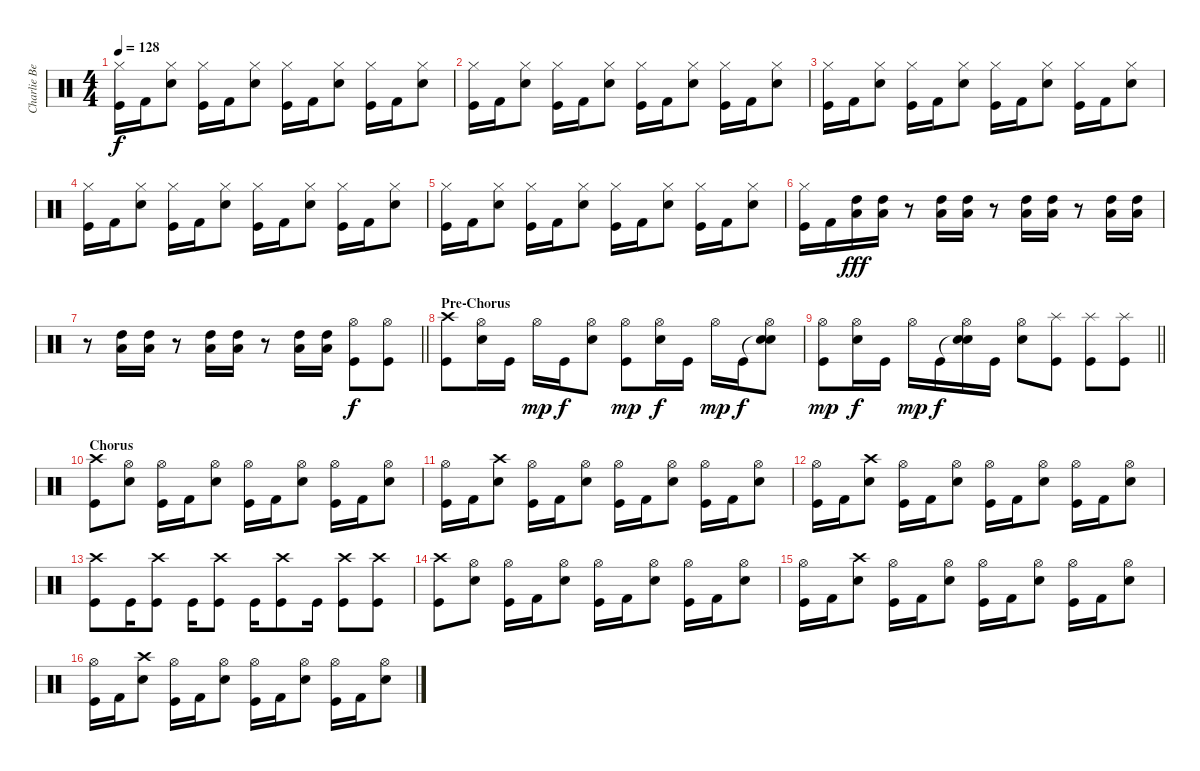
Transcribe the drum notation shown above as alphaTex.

\track ("Charlie Benante (Drums)" "Charlie Be") {instrument percussion}
\staff {score}
\articulation defaults
\ts (4 4)
\tempo 128
\clef neutral
\ks c
("Hi-Hat (closed)" "Kick (hit)").16{dy f} "Kick (hit) 2".16 ("Hi-Hat (closed)" "Snare (hit) 2").8 ("Hi-Hat (closed)" "Kick (hit)").16 "Kick (hit) 2".16 ("Hi-Hat (closed)" "Snare (hit) 2").8 ("Hi-Hat (closed)" "Kick (hit)").16 "Kick (hit) 2".16 ("Hi-Hat (closed)" "Snare (hit) 2").8 ("Hi-Hat (closed)" "Kick (hit)").16 "Kick (hit) 2".16 ("Hi-Hat (closed)" "Snare (hit) 2").8 |
("Hi-Hat (closed)" "Kick (hit)").16 "Kick (hit) 2".16 ("Hi-Hat (closed)" "Snare (hit) 2").8 ("Hi-Hat (closed)" "Kick (hit)").16 "Kick (hit) 2".16 ("Hi-Hat (closed)" "Snare (hit) 2").8 ("Hi-Hat (closed)" "Kick (hit)").16 "Kick (hit) 2".16 ("Hi-Hat (closed)" "Snare (hit) 2").8 ("Hi-Hat (closed)" "Kick (hit)").16 "Kick (hit) 2".16 ("Hi-Hat (closed)" "Snare (hit) 2").8 |
("Hi-Hat (closed)" "Kick (hit)").16 "Kick (hit) 2".16 ("Hi-Hat (closed)" "Snare (hit) 2").8 ("Hi-Hat (closed)" "Kick (hit)").16 "Kick (hit) 2".16 ("Hi-Hat (closed)" "Snare (hit) 2").8 ("Hi-Hat (closed)" "Kick (hit)").16 "Kick (hit) 2".16 ("Hi-Hat (closed)" "Snare (hit) 2").8 ("Hi-Hat (closed)" "Kick (hit)").16 "Kick (hit) 2".16 ("Hi-Hat (closed)" "Snare (hit) 2").8 |
("Hi-Hat (closed)" "Kick (hit)").16 "Kick (hit) 2".16 ("Hi-Hat (closed)" "Snare (hit) 2").8 ("Hi-Hat (closed)" "Kick (hit)").16 "Kick (hit) 2".16 ("Hi-Hat (closed)" "Snare (hit) 2").8 ("Hi-Hat (closed)" "Kick (hit)").16 "Kick (hit) 2".16 ("Hi-Hat (closed)" "Snare (hit) 2").8 ("Hi-Hat (closed)" "Kick (hit)").16 "Kick (hit) 2".16 ("Hi-Hat (closed)" "Snare (hit) 2").8 |
("Hi-Hat (closed)" "Kick (hit)").16 "Kick (hit) 2".16 ("Hi-Hat (closed)" "Snare (hit) 2").8 ("Hi-Hat (closed)" "Kick (hit)").16 "Kick (hit) 2".16 ("Hi-Hat (closed)" "Snare (hit) 2").8 ("Hi-Hat (closed)" "Kick (hit)").16 "Kick (hit) 2".16 ("Hi-Hat (closed)" "Snare (hit) 2").8 ("Hi-Hat (closed)" "Kick (hit)").16 "Kick (hit) 2".16 ("Hi-Hat (closed)" "Snare (hit) 2").8 |
("Hi-Hat (closed)" "Kick (hit)").16 "Kick (hit) 2".16 ("Low Tom (hit)" "High Tom (hit)").16{dy fff} ("Low Tom (hit)" "High Tom (hit)").16 r.8 ("Low Tom (hit)" "High Tom (hit)").16 ("Low Tom (hit)" "High Tom (hit)").16 r.8 ("Low Tom (hit)" "High Tom (hit)").16 ("Low Tom (hit)" "High Tom (hit)").16 r.8 ("Low Tom (hit)" "High Tom (hit)").16 ("Low Tom (hit)" "High Tom (hit)").16 |
\barLineRight lightlight
r.8 ("Low Tom (hit)" "High Tom (hit)").16 ("Low Tom (hit)" "High Tom (hit)").16 r.8 ("Low Tom (hit)" "High Tom (hit)").16 ("Low Tom (hit)" "High Tom (hit)").16 r.8 ("Low Tom (hit)" "High Tom (hit)").16 ("Low Tom (hit)" "High Tom (hit)").16 ("Hi-Hat (open)" "Kick (hit)").8{dy f} ("Hi-Hat (open)" "Kick (hit)").8 |
\section ("" "Pre-Chorus")
("Crash high (hit)" "Kick (hit)").8 ("Hi-Hat (open)" "Snare (hit) 2").16 "Kick (hit)".16 "Hi-Hat (open)".16{dy mp} "Kick (hit)".16{dy f} ("Hi-Hat (open)" "Snare (hit) 2").8 ("Hi-Hat (open)" "Kick (hit)").8{dy mp} ("Hi-Hat (open)" "Snare (hit) 2").16{dy f} "Kick (hit)".16 "Hi-Hat (open)".16{dy mp} "Kick (hit)".16{dy f} ("Snare (hit)"{t} "Hi-Hat (open)" "Snare (hit) 2").8 |
\barLineRight lightlight
("Hi-Hat (open)" "Kick (hit)").8{dy mp} ("Hi-Hat (open)" "Snare (hit) 2").16{dy f} "Kick (hit)".16 "Hi-Hat (open)".16{dy mp} "Kick (hit)".16{dy f} ("Snare (hit)"{t} "Hi-Hat (open)" "Snare (hit) 2").16 "Kick (hit)".16 ("Hi-Hat (open)" "Snare (hit) 2").8 ("Splash (hit)" "Kick (hit)").8 ("Splash (hit)" "Kick (hit)").8 ("Splash (hit)" "Kick (hit)").8 |
\section ("" "Chorus")
("Crash high (hit)" "Kick (hit)").8 ("Hi-Hat (open)" "Snare (hit) 2").8 ("Hi-Hat (open)" "Kick (hit)").16 "Kick (hit) 2".16 ("Hi-Hat (open)" "Snare (hit) 2").8 ("Hi-Hat (open)" "Kick (hit)").16 "Kick (hit) 2".16 ("Hi-Hat (open)" "Snare (hit) 2").8 ("Hi-Hat (open)" "Kick (hit)").16 "Kick (hit) 2".16 ("Hi-Hat (open)" "Snare (hit) 2").8 |
("Hi-Hat (open)" "Kick (hit)").16 "Kick (hit) 2".16 ("Crash high (hit)" "Snare (hit) 2").8 ("Hi-Hat (open)" "Kick (hit)").16 "Kick (hit) 2".16 ("Hi-Hat (open)" "Snare (hit) 2").8 ("Hi-Hat (open)" "Kick (hit)").16 "Kick (hit) 2".16 ("Hi-Hat (open)" "Snare (hit) 2").8 ("Hi-Hat (open)" "Kick (hit)").16 "Kick (hit) 2".16 ("Hi-Hat (open)" "Snare (hit) 2").8 |
("Hi-Hat (open)" "Kick (hit)").16 "Kick (hit) 2".16 ("Crash high (hit)" "Snare (hit) 2").8 ("Hi-Hat (open)" "Kick (hit)").16 "Kick (hit) 2".16 ("Hi-Hat (open)" "Snare (hit) 2").8 ("Hi-Hat (open)" "Kick (hit)").16 "Kick (hit) 2".16 ("Hi-Hat (open)" "Snare (hit) 2").8 ("Hi-Hat (open)" "Kick (hit)").16 "Kick (hit) 2".16 ("Hi-Hat (open)" "Snare (hit) 2").8 |
("Crash high (hit)" "Kick (hit)").8 "Kick (hit)".16 ("Crash high (hit)" "Kick (hit)").8 "Kick (hit)".16 ("Crash high (hit)" "Kick (hit)").8 "Kick (hit)".16 ("Crash high (hit)" "Kick (hit)").8 "Kick (hit)".16 ("Crash high (hit)" "Kick (hit)").8 ("Crash high (hit)" "Kick (hit)").8 |
("Crash high (hit)" "Kick (hit)").8 ("Hi-Hat (open)" "Snare (hit) 2").8 ("Hi-Hat (open)" "Kick (hit)").16 "Kick (hit) 2".16 ("Hi-Hat (open)" "Snare (hit) 2").8 ("Hi-Hat (open)" "Kick (hit)").16 "Kick (hit) 2".16 ("Hi-Hat (open)" "Snare (hit) 2").8 ("Hi-Hat (open)" "Kick (hit)").16 "Kick (hit) 2".16 ("Hi-Hat (open)" "Snare (hit) 2").8 |
("Hi-Hat (open)" "Kick (hit)").16 "Kick (hit) 2".16 ("Crash high (hit)" "Snare (hit) 2").8 ("Hi-Hat (open)" "Kick (hit)").16 "Kick (hit) 2".16 ("Hi-Hat (open)" "Snare (hit) 2").8 ("Hi-Hat (open)" "Kick (hit)").16 "Kick (hit) 2".16 ("Hi-Hat (open)" "Snare (hit) 2").8 ("Hi-Hat (open)" "Kick (hit)").16 "Kick (hit) 2".16 ("Hi-Hat (open)" "Snare (hit) 2").8 |
("Hi-Hat (open)" "Kick (hit)").16 "Kick (hit) 2".16 ("Crash high (hit)" "Snare (hit) 2").8 ("Hi-Hat (open)" "Kick (hit)").16 "Kick (hit) 2".16 ("Hi-Hat (open)" "Snare (hit) 2").8 ("Hi-Hat (open)" "Kick (hit)").16 "Kick (hit) 2".16 ("Hi-Hat (open)" "Snare (hit) 2").8 ("Hi-Hat (open)" "Kick (hit)").16 "Kick (hit) 2".16 ("Hi-Hat (open)" "Snare (hit) 2").8
